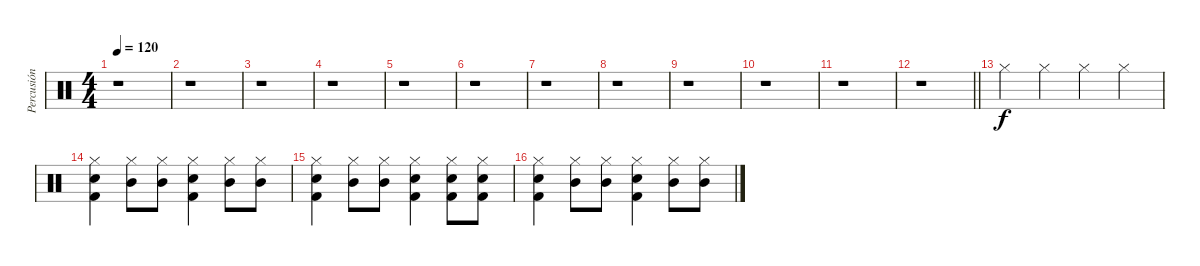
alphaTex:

\track ("Percusión" "Percusión") {instrument percussion}
\staff {score}
\articulation defaults
\ts (4 4)
\tempo 120
\clef neutral
\ks c
r.1{dy f} |
r.1 |
r.1 |
r.1 |
r.1 |
r.1 |
r.1 |
r.1 |
r.1 |
r.1 |
r.1 |
\barLineRight lightlight
r.1 |
\section ("" "")
"Hi-Hat (closed)".4 "Hi-Hat (closed)".4 "Hi-Hat (closed)".4 "Hi-Hat (closed)".4 |
("Hi-Hat (closed)" "Snare (hit) 2" "Kick (hit) 2").4 ("Hi-Hat (closed)" "Mid Tom (hit)").8 ("Hi-Hat (closed)" "Mid Tom (hit)").8 ("Hi-Hat (closed)" "Snare (hit) 2" "Kick (hit) 2").4 ("Hi-Hat (closed)" "Mid Tom (hit)").8 ("Hi-Hat (closed)" "Mid Tom (hit)").8 |
("Hi-Hat (closed)" "Snare (hit) 2" "Kick (hit) 2").4 ("Hi-Hat (closed)" "Mid Tom (hit)").8 ("Hi-Hat (closed)" "Mid Tom (hit)").8 ("Hi-Hat (closed)" "Snare (hit) 2" "Kick (hit) 2").4 ("Hi-Hat (closed)" "Snare (hit) 2" "Kick (hit) 2").8 ("Hi-Hat (closed)" "Snare (hit) 2" "Kick (hit) 2").8 |
("Hi-Hat (closed)" "Snare (hit) 2" "Kick (hit) 2").4 ("Hi-Hat (closed)" "Mid Tom (hit)").8 ("Hi-Hat (closed)" "Mid Tom (hit)").8 ("Hi-Hat (closed)" "Snare (hit) 2" "Kick (hit) 2").4 ("Hi-Hat (closed)" "Mid Tom (hit)").8 ("Hi-Hat (closed)" "Mid Tom (hit)").8
